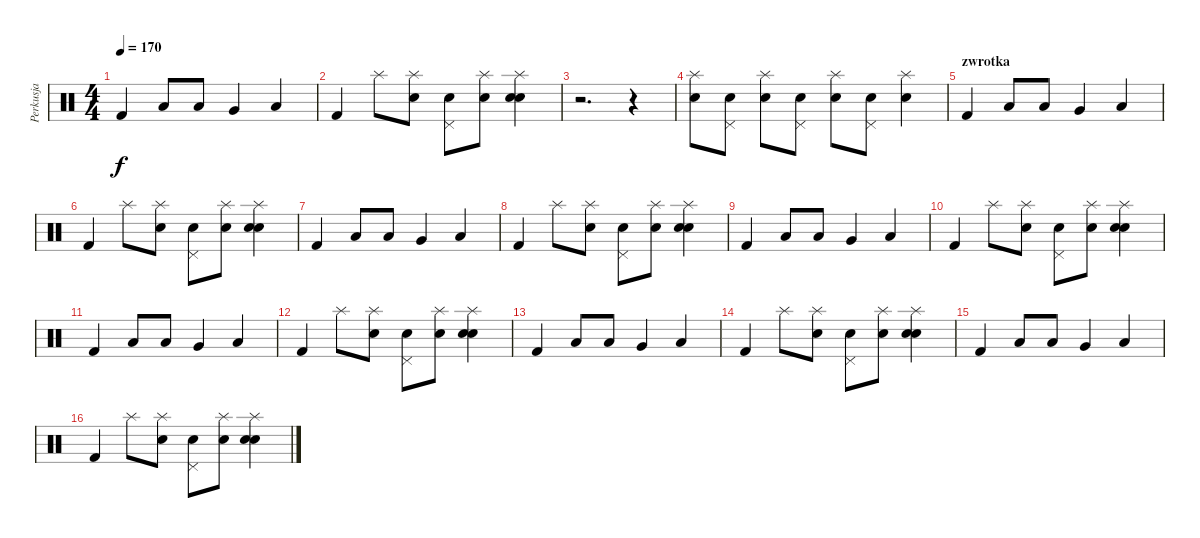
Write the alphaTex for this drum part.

\track ("Perkusja" "Perkusja") {instrument percussion}
\staff {score}
\articulation defaults
\ts (4 4)
\tempo 170
\clef neutral
\ks c "Kick (hit) 2".4{dy f} "Low Tom (hit)".8 "Low Tom (hit)".8 "Very Low Tom (hit)".4 "Low Tom (hit)".4
|
"Kick (hit) 2".4 "Splash (hit)".8 ("Splash (hit)" "Electric Snare (hit)").8 ("Pedal Hi-Hat (hit)" "Electric Snare (hit)").8 ("Splash (hit)" "Electric Snare (hit)").8 ("Splash (hit)" "Electric Snare (hit)" "Snare (hit) 2").4 |
r.2{d} r.4 |
("Splash (hit)" "Electric Snare (hit)").8 ("Pedal Hi-Hat (hit)" "Electric Snare (hit)").8 ("Splash (hit)" "Electric Snare (hit)").8 ("Pedal Hi-Hat (hit)" "Electric Snare (hit)").8 ("Splash (hit)" "Electric Snare (hit)").8 ("Pedal Hi-Hat (hit)" "Electric Snare (hit)").8 ("Splash (hit)" "Electric Snare (hit)").4 |
\section ("" "zwrotka")
"Kick (hit) 2".4 "Low Tom (hit)".8 "Low Tom (hit)".8 "Very Low Tom (hit)".4 "Low Tom (hit)".4 |
"Kick (hit) 2".4 "Splash (hit)".8 ("Splash (hit)" "Electric Snare (hit)").8 ("Pedal Hi-Hat (hit)" "Electric Snare (hit)").8 ("Splash (hit)" "Electric Snare (hit)").8 ("Splash (hit)" "Electric Snare (hit)" "Snare (hit) 2").4 |
"Kick (hit) 2".4 "Low Tom (hit)".8 "Low Tom (hit)".8 "Very Low Tom (hit)".4 "Low Tom (hit)".4 |
"Kick (hit) 2".4 "Splash (hit)".8 ("Splash (hit)" "Electric Snare (hit)").8 ("Pedal Hi-Hat (hit)" "Electric Snare (hit)").8 ("Splash (hit)" "Electric Snare (hit)").8 ("Splash (hit)" "Electric Snare (hit)" "Snare (hit) 2").4 |
"Kick (hit) 2".4 "Low Tom (hit)".8 "Low Tom (hit)".8 "Very Low Tom (hit)".4 "Low Tom (hit)".4 |
"Kick (hit) 2".4 "Splash (hit)".8 ("Splash (hit)" "Electric Snare (hit)").8 ("Pedal Hi-Hat (hit)" "Electric Snare (hit)").8 ("Splash (hit)" "Electric Snare (hit)").8 ("Splash (hit)" "Electric Snare (hit)" "Snare (hit) 2").4 |
"Kick (hit) 2".4 "Low Tom (hit)".8 "Low Tom (hit)".8 "Very Low Tom (hit)".4 "Low Tom (hit)".4 |
"Kick (hit) 2".4 "Splash (hit)".8 ("Splash (hit)" "Electric Snare (hit)").8 ("Pedal Hi-Hat (hit)" "Electric Snare (hit)").8 ("Splash (hit)" "Electric Snare (hit)").8 ("Splash (hit)" "Electric Snare (hit)" "Snare (hit) 2").4 |
"Kick (hit) 2".4 "Low Tom (hit)".8 "Low Tom (hit)".8 "Very Low Tom (hit)".4 "Low Tom (hit)".4 |
"Kick (hit) 2".4 "Splash (hit)".8 ("Splash (hit)" "Electric Snare (hit)").8 ("Pedal Hi-Hat (hit)" "Electric Snare (hit)").8 ("Splash (hit)" "Electric Snare (hit)").8 ("Splash (hit)" "Electric Snare (hit)" "Snare (hit) 2").4 |
"Kick (hit) 2".4 "Low Tom (hit)".8 "Low Tom (hit)".8 "Very Low Tom (hit)".4 "Low Tom (hit)".4 |
"Kick (hit) 2".4 "Splash (hit)".8 ("Splash (hit)" "Electric Snare (hit)").8 ("Pedal Hi-Hat (hit)" "Electric Snare (hit)").8 ("Splash (hit)" "Electric Snare (hit)").8 ("Splash (hit)" "Electric Snare (hit)" "Snare (hit) 2").4
